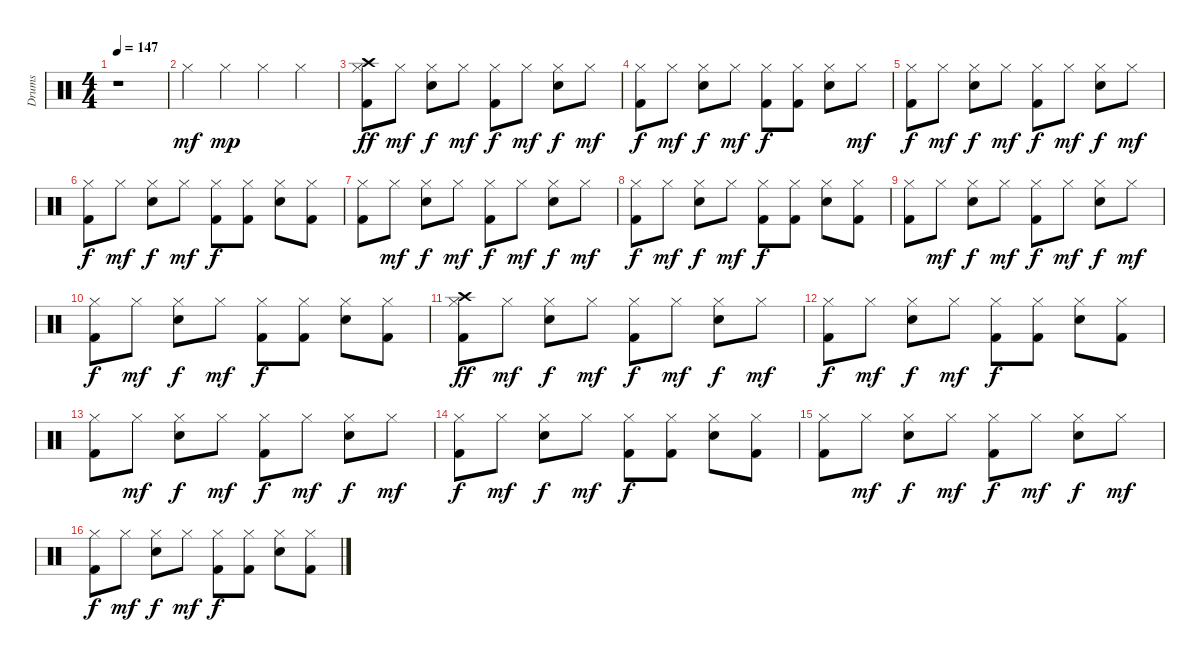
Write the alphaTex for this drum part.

\track ("Drums" "Drums") {instrument percussion}
\staff {score}
\articulation defaults
\ts (4 4)
\tempo 147
\clef neutral
\ks c
r.1{dy mf} |
"Hi-Hat (closed)".4 "Hi-Hat (closed)".4{dy mp} "Hi-Hat (closed)".4 "Hi-Hat (closed)".4 |
("Hi-Hat (closed)" "Crash high (hit)" "Kick (hit) 2").8{dy ff} "Hi-Hat (closed)".8{dy mf} ("Hi-Hat (closed)" "Snare (hit) 2").8{dy f} "Hi-Hat (closed)".8{dy mf} ("Hi-Hat (closed)" "Kick (hit) 2").8{dy f} "Hi-Hat (closed)".8{dy mf} ("Hi-Hat (closed)" "Snare (hit) 2").8{dy f} "Hi-Hat (closed)".8{dy mf} |
("Hi-Hat (closed)" "Kick (hit) 2").8{dy f} "Hi-Hat (closed)".8{dy mf} ("Hi-Hat (closed)" "Snare (hit) 2").8{dy f} "Hi-Hat (closed)".8{dy mf} ("Hi-Hat (closed)" "Kick (hit) 2").8{dy f} ("Hi-Hat (closed)" "Kick (hit) 2").8 ("Hi-Hat (closed)" "Snare (hit) 2").8 "Hi-Hat (closed)".8{dy mf} |
("Hi-Hat (closed)" "Kick (hit) 2").8{dy f} "Hi-Hat (closed)".8{dy mf} ("Hi-Hat (closed)" "Snare (hit) 2").8{dy f} "Hi-Hat (closed)".8{dy mf} ("Hi-Hat (closed)" "Kick (hit) 2").8{dy f} "Hi-Hat (closed)".8{dy mf} ("Hi-Hat (closed)" "Snare (hit) 2").8{dy f} "Hi-Hat (closed)".8{dy mf} |
("Hi-Hat (closed)" "Kick (hit) 2").8{dy f} "Hi-Hat (closed)".8{dy mf} ("Hi-Hat (closed)" "Snare (hit) 2").8{dy f} "Hi-Hat (closed)".8{dy mf} ("Hi-Hat (closed)" "Kick (hit) 2").8{dy f} ("Hi-Hat (closed)" "Kick (hit) 2").8 ("Hi-Hat (closed)" "Snare (hit) 2").8 ("Hi-Hat (closed)" "Kick (hit) 2").8 |
("Hi-Hat (closed)" "Kick (hit) 2").8 "Hi-Hat (closed)".8{dy mf} ("Hi-Hat (closed)" "Snare (hit) 2").8{dy f} "Hi-Hat (closed)".8{dy mf} ("Hi-Hat (closed)" "Kick (hit) 2").8{dy f} "Hi-Hat (closed)".8{dy mf} ("Hi-Hat (closed)" "Snare (hit) 2").8{dy f} "Hi-Hat (closed)".8{dy mf} |
("Hi-Hat (closed)" "Kick (hit) 2").8{dy f} "Hi-Hat (closed)".8{dy mf} ("Hi-Hat (closed)" "Snare (hit) 2").8{dy f} "Hi-Hat (closed)".8{dy mf} ("Hi-Hat (closed)" "Kick (hit) 2").8{dy f} ("Hi-Hat (closed)" "Kick (hit) 2").8 ("Hi-Hat (closed)" "Snare (hit) 2").8 ("Hi-Hat (closed)" "Kick (hit) 2").8 |
("Hi-Hat (closed)" "Kick (hit) 2").8 "Hi-Hat (closed)".8{dy mf} ("Hi-Hat (closed)" "Snare (hit) 2").8{dy f} "Hi-Hat (closed)".8{dy mf} ("Hi-Hat (closed)" "Kick (hit) 2").8{dy f} "Hi-Hat (closed)".8{dy mf} ("Hi-Hat (closed)" "Snare (hit) 2").8{dy f} "Hi-Hat (closed)".8{dy mf} |
("Hi-Hat (closed)" "Kick (hit) 2").8{dy f} "Hi-Hat (closed)".8{dy mf} ("Hi-Hat (closed)" "Snare (hit) 2").8{dy f} "Hi-Hat (closed)".8{dy mf} ("Hi-Hat (closed)" "Kick (hit) 2").8{dy f} ("Hi-Hat (closed)" "Kick (hit) 2").8 ("Hi-Hat (closed)" "Snare (hit) 2").8 ("Hi-Hat (closed)" "Kick (hit) 2").8 |
("Hi-Hat (closed)" "Crash high (hit)" "Kick (hit) 2").8{dy ff} "Hi-Hat (closed)".8{dy mf} ("Hi-Hat (closed)" "Snare (hit) 2").8{dy f} "Hi-Hat (closed)".8{dy mf} ("Hi-Hat (closed)" "Kick (hit) 2").8{dy f} "Hi-Hat (closed)".8{dy mf} ("Hi-Hat (closed)" "Snare (hit) 2").8{dy f} "Hi-Hat (closed)".8{dy mf} |
("Hi-Hat (closed)" "Kick (hit) 2").8{dy f} "Hi-Hat (closed)".8{dy mf} ("Hi-Hat (closed)" "Snare (hit) 2").8{dy f} "Hi-Hat (closed)".8{dy mf} ("Hi-Hat (closed)" "Kick (hit) 2").8{dy f} ("Hi-Hat (closed)" "Kick (hit) 2").8 ("Hi-Hat (closed)" "Snare (hit) 2").8 ("Hi-Hat (closed)" "Kick (hit) 2").8 |
("Hi-Hat (closed)" "Kick (hit) 2").8 "Hi-Hat (closed)".8{dy mf} ("Hi-Hat (closed)" "Snare (hit) 2").8{dy f} "Hi-Hat (closed)".8{dy mf} ("Hi-Hat (closed)" "Kick (hit) 2").8{dy f} "Hi-Hat (closed)".8{dy mf} ("Hi-Hat (closed)" "Snare (hit) 2").8{dy f} "Hi-Hat (closed)".8{dy mf} |
("Hi-Hat (closed)" "Kick (hit) 2").8{dy f} "Hi-Hat (closed)".8{dy mf} ("Hi-Hat (closed)" "Snare (hit) 2").8{dy f} "Hi-Hat (closed)".8{dy mf} ("Hi-Hat (closed)" "Kick (hit) 2").8{dy f} ("Hi-Hat (closed)" "Kick (hit) 2").8 ("Hi-Hat (closed)" "Snare (hit) 2").8 ("Hi-Hat (closed)" "Kick (hit) 2").8 |
("Hi-Hat (closed)" "Kick (hit) 2").8 "Hi-Hat (closed)".8{dy mf} ("Hi-Hat (closed)" "Snare (hit) 2").8{dy f} "Hi-Hat (closed)".8{dy mf} ("Hi-Hat (closed)" "Kick (hit) 2").8{dy f} "Hi-Hat (closed)".8{dy mf} ("Hi-Hat (closed)" "Snare (hit) 2").8{dy f} "Hi-Hat (closed)".8{dy mf} |
("Hi-Hat (closed)" "Kick (hit) 2").8{dy f} "Hi-Hat (closed)".8{dy mf} ("Hi-Hat (closed)" "Snare (hit) 2").8{dy f} "Hi-Hat (closed)".8{dy mf} ("Hi-Hat (closed)" "Kick (hit) 2").8{dy f} ("Hi-Hat (closed)" "Kick (hit) 2").8 ("Hi-Hat (closed)" "Snare (hit) 2").8 ("Hi-Hat (closed)" "Kick (hit) 2").8
